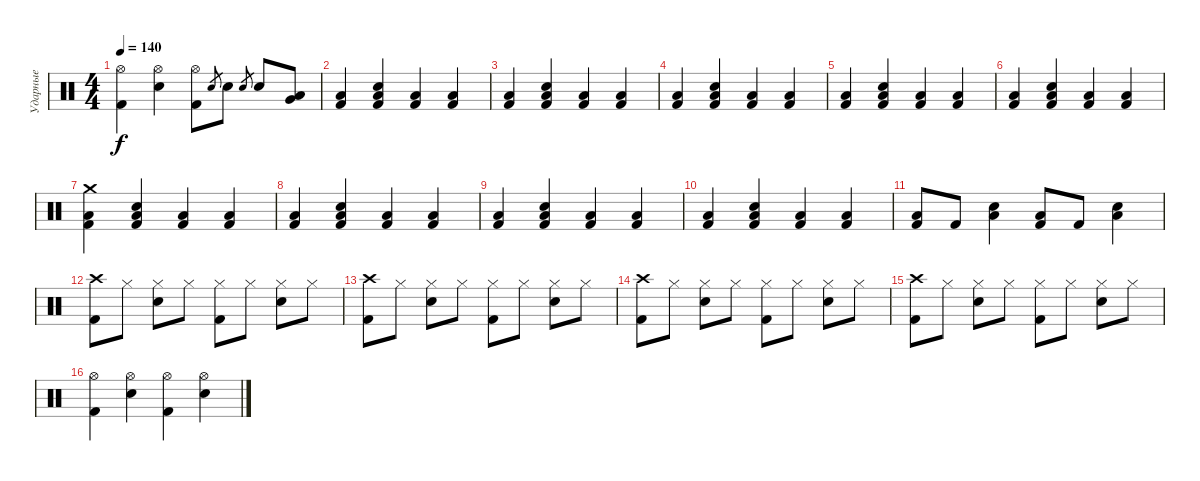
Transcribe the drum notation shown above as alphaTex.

\track ("Ударные" "Ударные") {instrument percussion}
\staff {score}
\articulation defaults
\ts (4 4)
\tempo 140
\clef neutral
\ks c
("Kick (hit) 2" "Hi-Hat (open)").4{dy f} ("Snare (hit) 2" "Hi-Hat (open)").4 ("Kick (hit) 2" "Hi-Hat (open)").8 "Snare (hit) 2".8{gr} "Snare (hit) 2".8 "Snare (hit) 2".8{gr} "Snare (hit) 2".8 ("Low Tom (hit)" "Very Low Tom (hit)").8 |
("Kick (hit) 2" "Low Floor Tom (hit)").4 ("Kick (hit) 2" "Snare (hit) 2" "Low Floor Tom (hit)").4 ("Kick (hit) 2" "Low Floor Tom (hit)").4 ("Kick (hit) 2" "Low Floor Tom (hit)").4 |
("Kick (hit) 2" "Low Floor Tom (hit)").4 ("Kick (hit) 2" "Snare (hit) 2" "Low Floor Tom (hit)").4 ("Kick (hit) 2" "Low Floor Tom (hit)").4 ("Kick (hit) 2" "Low Floor Tom (hit)").4 |
("Kick (hit) 2" "Low Floor Tom (hit)").4 ("Kick (hit) 2" "Snare (hit) 2" "Low Floor Tom (hit)").4 ("Kick (hit) 2" "Low Floor Tom (hit)").4 ("Kick (hit) 2" "Low Floor Tom (hit)").4 |
("Kick (hit) 2" "Low Floor Tom (hit)").4 ("Kick (hit) 2" "Snare (hit) 2" "Low Floor Tom (hit)").4 ("Kick (hit) 2" "Low Floor Tom (hit)").4 ("Kick (hit) 2" "Low Floor Tom (hit)").4 |
("Kick (hit) 2" "Low Floor Tom (hit)").4 ("Kick (hit) 2" "Snare (hit) 2" "Low Floor Tom (hit)").4 ("Kick (hit) 2" "Low Floor Tom (hit)").4 ("Kick (hit) 2" "Low Floor Tom (hit)").4 |
("Kick (hit) 2" "Low Floor Tom (hit)" "Crash medium (hit)").4 ("Kick (hit) 2" "Snare (hit) 2" "Low Floor Tom (hit)").4 ("Kick (hit) 2" "Low Floor Tom (hit)").4 ("Kick (hit) 2" "Low Floor Tom (hit)").4 |
("Kick (hit) 2" "Low Floor Tom (hit)").4 ("Kick (hit) 2" "Snare (hit) 2" "Low Floor Tom (hit)").4 ("Kick (hit) 2" "Low Floor Tom (hit)").4 ("Kick (hit) 2" "Low Floor Tom (hit)").4 |
("Kick (hit) 2" "Low Floor Tom (hit)").4 ("Kick (hit) 2" "Snare (hit) 2" "Low Floor Tom (hit)").4 ("Kick (hit) 2" "Low Floor Tom (hit)").4 ("Kick (hit) 2" "Low Floor Tom (hit)").4 |
("Kick (hit) 2" "Low Floor Tom (hit)").4 ("Kick (hit) 2" "Snare (hit) 2" "Low Floor Tom (hit)").4 ("Kick (hit) 2" "Low Floor Tom (hit)").4 ("Kick (hit) 2" "Low Floor Tom (hit)").4 |
("Kick (hit) 2" "Low Floor Tom (hit)").8 "Kick (hit) 2".8 ("Snare (hit) 2" "Low Floor Tom (hit)").4 ("Kick (hit) 2" "Low Floor Tom (hit)").8 "Kick (hit) 2".8 ("Snare (hit) 2" "Low Floor Tom (hit)").4 |
("Crash high (hit)" "Kick (hit) 2").8 "Hi-Hat (closed)".8 ("Hi-Hat (closed)" "Snare (hit) 2").8 "Hi-Hat (closed)".8 ("Hi-Hat (closed)" "Kick (hit) 2").8 "Hi-Hat (closed)".8 ("Hi-Hat (closed)" "Snare (hit) 2").8 "Hi-Hat (closed)".8 |
("Crash high (hit)" "Kick (hit) 2").8 "Hi-Hat (closed)".8 ("Hi-Hat (closed)" "Snare (hit) 2").8 "Hi-Hat (closed)".8 ("Hi-Hat (closed)" "Kick (hit) 2").8 "Hi-Hat (closed)".8 ("Hi-Hat (closed)" "Snare (hit) 2").8 "Hi-Hat (closed)".8 |
("Crash high (hit)" "Kick (hit) 2").8 "Hi-Hat (closed)".8 ("Hi-Hat (closed)" "Snare (hit) 2").8 "Hi-Hat (closed)".8 ("Hi-Hat (closed)" "Kick (hit) 2").8 "Hi-Hat (closed)".8 ("Hi-Hat (closed)" "Snare (hit) 2").8 "Hi-Hat (closed)".8 |
("Crash high (hit)" "Kick (hit) 2").8 "Hi-Hat (closed)".8 ("Hi-Hat (closed)" "Snare (hit) 2").8 "Hi-Hat (closed)".8 ("Hi-Hat (closed)" "Kick (hit) 2").8 "Hi-Hat (closed)".8 ("Hi-Hat (closed)" "Snare (hit) 2").8 "Hi-Hat (closed)".8 |
("Kick (hit) 2" "Hi-Hat (open)").4 ("Snare (hit) 2" "Hi-Hat (open)").4 ("Kick (hit) 2" "Hi-Hat (open)").4 ("Snare (hit) 2" "Hi-Hat (open)").4
